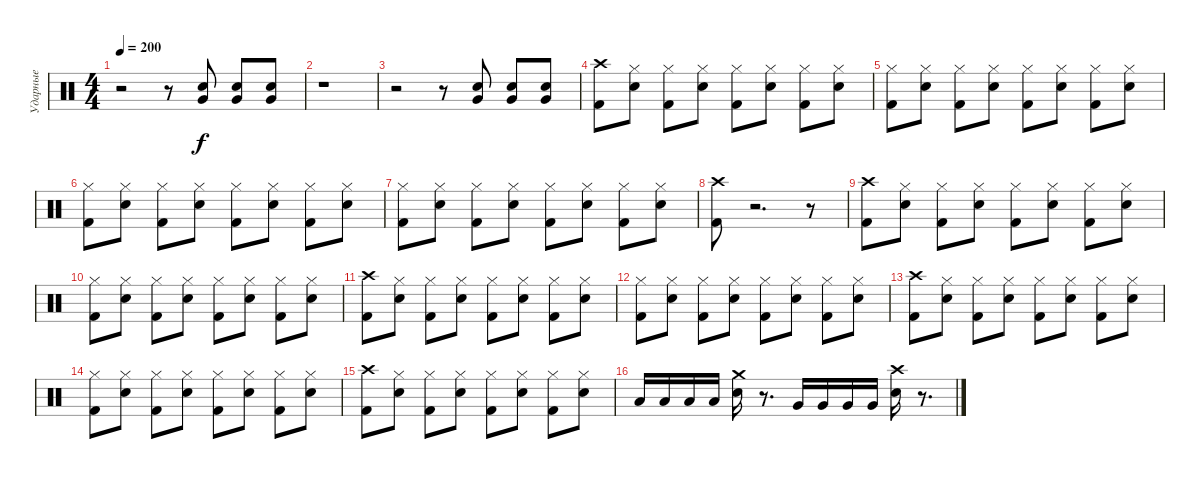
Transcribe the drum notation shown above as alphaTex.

\track ("Ударные" "Ударные") {instrument percussion}
\staff {score}
\articulation defaults
\ts (4 4)
\tempo 200
\clef neutral
\ks c
r.2{dy f} r.8 ("Snare (hit) 2" "Very Low Tom (hit)").8 ("Snare (hit) 2" "Very Low Tom (hit)").8 ("Snare (hit) 2" "Very Low Tom (hit)").8 |
r.1 |
r.2 r.8 ("Very Low Tom (hit)" "Snare (hit) 2").8 ("Very Low Tom (hit)" "Snare (hit) 2").8 ("Very Low Tom (hit)" "Snare (hit) 2").8 |
("Crash high (hit)" "Kick (hit) 2").8 ("Hi-Hat (closed)" "Snare (hit) 2").8 ("Hi-Hat (closed)" "Kick (hit) 2").8 ("Hi-Hat (closed)" "Snare (hit) 2").8 ("Hi-Hat (closed)" "Kick (hit) 2").8 ("Hi-Hat (closed)" "Snare (hit) 2").8 ("Hi-Hat (closed)" "Kick (hit) 2").8 ("Hi-Hat (closed)" "Snare (hit) 2").8 |
("Hi-Hat (closed)" "Kick (hit) 2").8 ("Hi-Hat (closed)" "Snare (hit) 2").8 ("Hi-Hat (closed)" "Kick (hit) 2").8 ("Hi-Hat (closed)" "Snare (hit) 2").8 ("Kick (hit) 2" "Hi-Hat (closed)").8 ("Hi-Hat (closed)" "Snare (hit) 2").8 ("Hi-Hat (closed)" "Kick (hit) 2").8 ("Hi-Hat (closed)" "Snare (hit) 2").8 |
("Hi-Hat (closed)" "Kick (hit) 2").8 ("Hi-Hat (closed)" "Snare (hit) 2").8 ("Hi-Hat (closed)" "Kick (hit) 2").8 ("Hi-Hat (closed)" "Snare (hit) 2").8 ("Hi-Hat (closed)" "Kick (hit) 2").8 ("Hi-Hat (closed)" "Snare (hit) 2").8 ("Hi-Hat (closed)" "Kick (hit) 2").8 ("Hi-Hat (closed)" "Snare (hit) 2").8 |
("Hi-Hat (closed)" "Kick (hit) 2").8 ("Hi-Hat (closed)" "Snare (hit) 2").8 ("Hi-Hat (closed)" "Kick (hit) 2").8 ("Hi-Hat (closed)" "Snare (hit) 2").8 ("Kick (hit) 2" "Hi-Hat (closed)").8 ("Snare (hit) 2" "Hi-Hat (closed)").8 ("Hi-Hat (closed)" "Kick (hit) 2").8 ("Hi-Hat (closed)" "Snare (hit) 2").8 |
("Crash high (hit)" "Kick (hit) 2").8 r.2{d} r.8 |
("Crash high (hit)" "Kick (hit) 2").8 ("Hi-Hat (closed)" "Snare (hit) 2").8 ("Hi-Hat (closed)" "Kick (hit) 2").8 ("Hi-Hat (closed)" "Snare (hit) 2").8 ("Hi-Hat (closed)" "Kick (hit) 2").8 ("Hi-Hat (closed)" "Snare (hit) 2").8 ("Hi-Hat (closed)" "Kick (hit) 2").8 ("Hi-Hat (closed)" "Snare (hit) 2").8 |
("Hi-Hat (closed)" "Kick (hit) 2").8 ("Hi-Hat (closed)" "Snare (hit) 2").8 ("Kick (hit) 2" "Hi-Hat (closed)").8 ("Snare (hit) 2" "Hi-Hat (closed)").8 ("Kick (hit) 2" "Hi-Hat (closed)").8 ("Hi-Hat (closed)" "Snare (hit) 2").8 ("Hi-Hat (closed)" "Kick (hit) 2").8 ("Hi-Hat (closed)" "Snare (hit) 2").8 |
("Crash high (hit)" "Kick (hit) 2").8 ("Hi-Hat (closed)" "Snare (hit) 2").8 ("Hi-Hat (closed)" "Kick (hit) 2").8 ("Hi-Hat (closed)" "Snare (hit) 2").8 ("Hi-Hat (closed)" "Kick (hit) 2").8 ("Hi-Hat (closed)" "Snare (hit) 2").8 ("Hi-Hat (closed)" "Kick (hit) 2").8 ("Hi-Hat (closed)" "Snare (hit) 2").8 |
("Hi-Hat (closed)" "Kick (hit) 2").8 ("Hi-Hat (closed)" "Snare (hit) 2").8 ("Hi-Hat (closed)" "Kick (hit) 2").8 ("Hi-Hat (closed)" "Snare (hit) 2").8 ("Hi-Hat (closed)" "Kick (hit) 2").8 ("Hi-Hat (closed)" "Snare (hit) 2").8 ("Hi-Hat (closed)" "Kick (hit) 2").8 ("Hi-Hat (closed)" "Snare (hit) 2").8 |
("Crash high (hit)" "Kick (hit) 2").8 ("Hi-Hat (closed)" "Snare (hit) 2").8 ("Hi-Hat (closed)" "Kick (hit) 2").8 ("Hi-Hat (closed)" "Snare (hit) 2").8 ("Hi-Hat (closed)" "Kick (hit) 2").8 ("Hi-Hat (closed)" "Snare (hit) 2").8 ("Hi-Hat (closed)" "Kick (hit) 2").8 ("Hi-Hat (closed)" "Snare (hit) 2").8 |
("Hi-Hat (closed)" "Kick (hit) 2").8 ("Hi-Hat (closed)" "Snare (hit) 2").8 ("Hi-Hat (closed)" "Kick (hit) 2").8 ("Hi-Hat (closed)" "Snare (hit) 2").8 ("Hi-Hat (closed)" "Kick (hit) 2").8 ("Hi-Hat (closed)" "Snare (hit) 2").8 ("Kick (hit) 2" "Hi-Hat (closed)").8 ("Hi-Hat (closed)" "Snare (hit) 2").8 |
("Crash high (hit)" "Kick (hit) 2").8 ("Hi-Hat (closed)" "Snare (hit) 2").8 ("Hi-Hat (closed)" "Kick (hit) 2").8 ("Hi-Hat (closed)" "Snare (hit) 2").8 ("Hi-Hat (closed)" "Kick (hit) 2").8 ("Hi-Hat (closed)" "Snare (hit) 2").8 ("Hi-Hat (closed)" "Kick (hit) 2").8 ("Hi-Hat (closed)" "Snare (hit) 2").8 |
"Low Tom (hit)".16 "Low Tom (hit)".16 "Low Tom (hit)".16 "Low Tom (hit)".16 ("Crash medium (hit)" "Snare (hit) 2").16 r.8{d} "Very Low Tom (hit)".16 "Very Low Tom (hit)".16 "Very Low Tom (hit)".16 "Very Low Tom (hit)".16 ("Crash high (hit)" "Snare (hit) 2").16 r.8{d}
